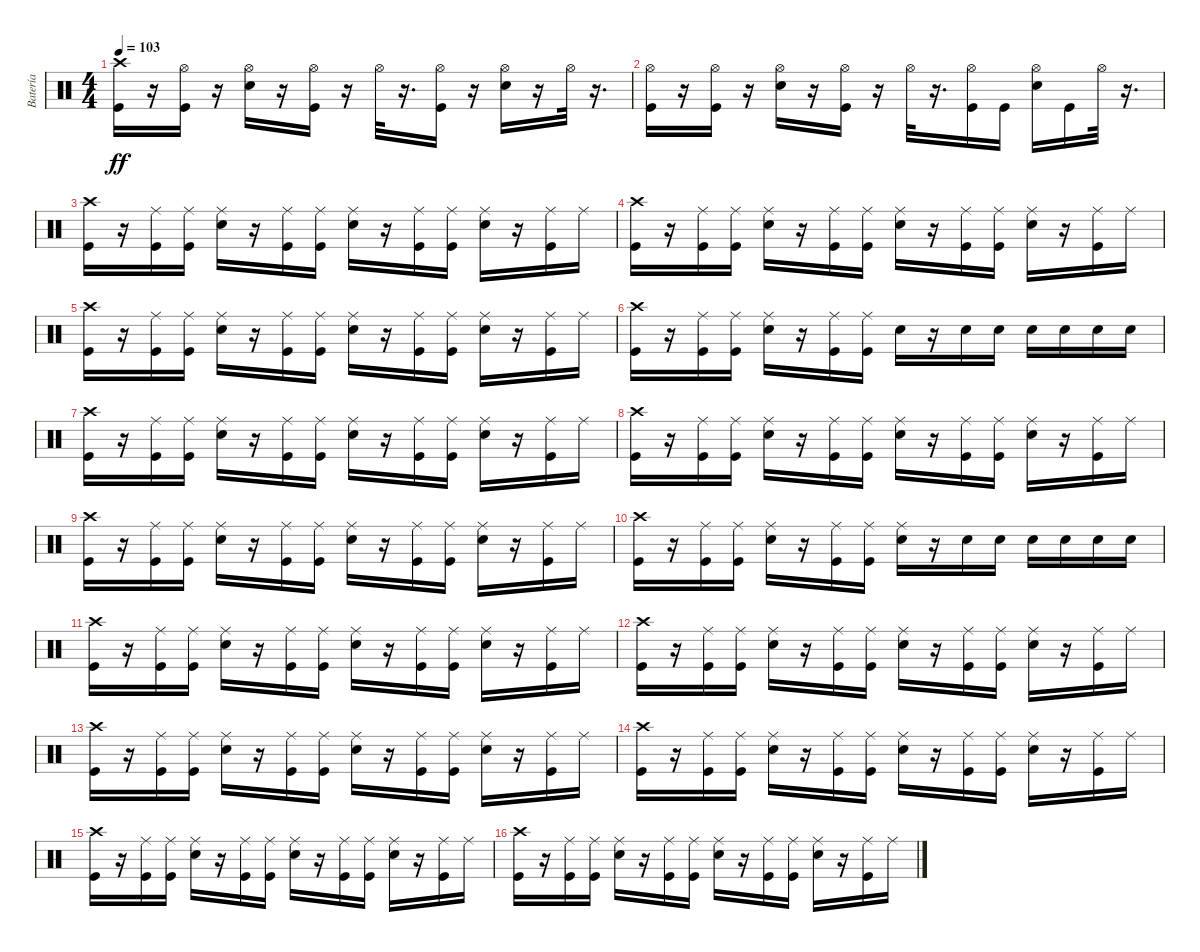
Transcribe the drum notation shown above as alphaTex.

\track ("Batería" "Batería") {instrument percussion}
\staff {score}
\articulation defaults
\ts (4 4)
\tempo 103
\clef neutral
\ks c
("Kick (hit)" "Crash high (hit)").16{dy ff} r.16 ("Kick (hit)" "Hi-Hat (open)").16 r.16 ("Snare (hit) 2" "Hi-Hat (open)").16 r.16 ("Kick (hit)" "Hi-Hat (open)").16 r.16 "Hi-Hat (open)".32 r.16{d} ("Kick (hit)" "Hi-Hat (open)").16 r.16 ("Snare (hit) 2" "Hi-Hat (open)").16 r.16 "Hi-Hat (open)".32 r.16{d} |
("Kick (hit)" "Hi-Hat (open)").16 r.16 ("Kick (hit)" "Hi-Hat (open)").16 r.16 ("Snare (hit) 2" "Hi-Hat (open)").16 r.16 ("Kick (hit)" "Hi-Hat (open)").16 r.16 "Hi-Hat (open)".32 r.16{d} ("Kick (hit)" "Hi-Hat (open)").16 "Kick (hit)".16 ("Snare (hit) 2" "Hi-Hat (open)").16 "Kick (hit)".16 "Hi-Hat (open)".32 r.16{d} |
("Kick (hit)" "Crash high (hit)").16 r.16 ("Kick (hit)" "Ride (middle)").16 ("Kick (hit)" "Ride (middle)").16 ("Ride (middle)" "Snare (hit) 2").16 r.16 ("Kick (hit)" "Ride (middle)").16 ("Kick (hit)" "Ride (middle)").16 ("Ride (middle)" "Snare (hit) 2").16 r.16 ("Kick (hit)" "Ride (middle)").16 ("Kick (hit)" "Ride (middle)").16 ("Ride (middle)" "Snare (hit) 2").16 r.16 ("Kick (hit)" "Ride (middle)").16 "Ride (middle)".16 |
("Crash high (hit)" "Kick (hit)").16 r.16 ("Kick (hit)" "Ride (middle)").16 ("Kick (hit)" "Ride (middle)").16 ("Ride (middle)" "Snare (hit) 2").16 r.16 ("Kick (hit)" "Ride (middle)").16 ("Kick (hit)" "Ride (middle)").16 ("Ride (middle)" "Snare (hit) 2").16 r.16 ("Kick (hit)" "Ride (middle)").16 ("Kick (hit)" "Ride (middle)").16 ("Ride (middle)" "Snare (hit) 2").16 r.16 ("Kick (hit)" "Ride (middle)").16 "Ride (middle)".16 |
("Crash high (hit)" "Kick (hit)").16 r.16 ("Kick (hit)" "Ride (middle)").16 ("Kick (hit)" "Ride (middle)").16 ("Ride (middle)" "Snare (hit) 2").16 r.16 ("Kick (hit)" "Ride (middle)").16 ("Kick (hit)" "Ride (middle)").16 ("Ride (middle)" "Snare (hit) 2").16 r.16 ("Kick (hit)" "Ride (middle)").16 ("Kick (hit)" "Ride (middle)").16 ("Ride (middle)" "Snare (hit) 2").16 r.16 ("Kick (hit)" "Ride (middle)").16 "Ride (middle)".16 |
("Crash high (hit)" "Kick (hit)").16 r.16 ("Kick (hit)" "Ride (middle)").16 ("Kick (hit)" "Ride (middle)").16 ("Ride (middle)" "Snare (hit) 2").16 r.16 ("Kick (hit)" "Ride (middle)").16 ("Kick (hit)" "Ride (middle)").16 "Snare (hit) 2".16 r.16 "Snare (hit) 2".16 "Snare (hit) 2".16 "Snare (hit) 2".16 "Snare (hit) 2".16 "Snare (hit) 2".16 "Snare (hit) 2".16 |
("Kick (hit)" "Crash high (hit)").16 r.16 ("Kick (hit)" "Ride (middle)").16 ("Kick (hit)" "Ride (middle)").16 ("Ride (middle)" "Snare (hit) 2").16 r.16 ("Kick (hit)" "Ride (middle)").16 ("Kick (hit)" "Ride (middle)").16 ("Ride (middle)" "Snare (hit) 2").16 r.16 ("Kick (hit)" "Ride (middle)").16 ("Kick (hit)" "Ride (middle)").16 ("Ride (middle)" "Snare (hit) 2").16 r.16 ("Kick (hit)" "Ride (middle)").16 "Ride (middle)".16 |
("Kick (hit)" "Crash high (hit)").16 r.16 ("Kick (hit)" "Ride (middle)").16 ("Kick (hit)" "Ride (middle)").16 ("Ride (middle)" "Snare (hit) 2").16 r.16 ("Kick (hit)" "Ride (middle)").16 ("Kick (hit)" "Ride (middle)").16 ("Ride (middle)" "Snare (hit) 2").16 r.16 ("Kick (hit)" "Ride (middle)").16 ("Kick (hit)" "Ride (middle)").16 ("Ride (middle)" "Snare (hit) 2").16 r.16 ("Kick (hit)" "Ride (middle)").16 "Ride (middle)".16 |
("Crash high (hit)" "Kick (hit)").16 r.16 ("Kick (hit)" "Ride (middle)").16 ("Kick (hit)" "Ride (middle)").16 ("Ride (middle)" "Snare (hit) 2").16 r.16 ("Kick (hit)" "Ride (middle)").16 ("Kick (hit)" "Ride (middle)").16 ("Ride (middle)" "Snare (hit) 2").16 r.16 ("Kick (hit)" "Ride (middle)").16 ("Kick (hit)" "Ride (middle)").16 ("Ride (middle)" "Snare (hit) 2").16 r.16 ("Kick (hit)" "Ride (middle)").16 "Ride (middle)".16 |
("Kick (hit)" "Crash high (hit)").16 r.16 ("Kick (hit)" "Ride (middle)").16 ("Kick (hit)" "Ride (middle)").16 ("Ride (middle)" "Snare (hit) 2").16 r.16 ("Kick (hit)" "Ride (middle)").16 ("Kick (hit)" "Ride (middle)").16 ("Ride (middle)" "Snare (hit) 2").16 r.16 "Snare (hit) 2".16 "Snare (hit) 2".16 "Snare (hit) 2".16 "Snare (hit) 2".16 "Snare (hit) 2".16 "Snare (hit) 2".16 |
("Kick (hit)" "Crash high (hit)").16 r.16 ("Kick (hit)" "Ride (middle)").16 ("Kick (hit)" "Ride (middle)").16 ("Ride (middle)" "Snare (hit) 2").16 r.16 ("Kick (hit)" "Ride (middle)").16 ("Kick (hit)" "Ride (middle)").16 ("Ride (middle)" "Snare (hit) 2").16 r.16 ("Kick (hit)" "Ride (middle)").16 ("Kick (hit)" "Ride (middle)").16 ("Ride (middle)" "Snare (hit) 2").16 r.16 ("Kick (hit)" "Ride (middle)").16 "Ride (middle)".16 |
("Kick (hit)" "Crash high (hit)").16 r.16 ("Kick (hit)" "Ride (middle)").16 ("Kick (hit)" "Ride (middle)").16 ("Ride (middle)" "Snare (hit) 2").16 r.16 ("Kick (hit)" "Ride (middle)").16 ("Kick (hit)" "Ride (middle)").16 ("Ride (middle)" "Snare (hit) 2").16 r.16 ("Kick (hit)" "Ride (middle)").16 ("Kick (hit)" "Ride (middle)").16 ("Ride (middle)" "Snare (hit) 2").16 r.16 ("Kick (hit)" "Ride (middle)").16 "Ride (middle)".16 |
("Kick (hit)" "Crash high (hit)").16 r.16 ("Kick (hit)" "Ride (middle)").16 ("Kick (hit)" "Ride (middle)").16 ("Ride (middle)" "Snare (hit) 2").16 r.16 ("Kick (hit)" "Ride (middle)").16 ("Kick (hit)" "Ride (middle)").16 ("Ride (middle)" "Snare (hit) 2").16 r.16 ("Kick (hit)" "Ride (middle)").16 ("Kick (hit)" "Ride (middle)").16 ("Ride (middle)" "Snare (hit) 2").16 r.16 ("Kick (hit)" "Ride (middle)").16 "Ride (middle)".16 |
("Kick (hit)" "Crash high (hit)").16 r.16 ("Kick (hit)" "Ride (middle)").16 ("Kick (hit)" "Ride (middle)").16 ("Ride (middle)" "Snare (hit) 2").16 r.16 ("Kick (hit)" "Ride (middle)").16 ("Kick (hit)" "Ride (middle)").16 ("Ride (middle)" "Snare (hit) 2").16 r.16 ("Kick (hit)" "Ride (middle)").16 ("Kick (hit)" "Ride (middle)").16 ("Ride (middle)" "Snare (hit) 2").16 r.16 ("Kick (hit)" "Ride (middle)").16 "Ride (middle)".16 |
("Kick (hit)" "Crash high (hit)").16 r.16 ("Kick (hit)" "Ride (middle)").16 ("Kick (hit)" "Ride (middle)").16 ("Ride (middle)" "Snare (hit) 2").16 r.16 ("Kick (hit)" "Ride (middle)").16 ("Kick (hit)" "Ride (middle)").16 ("Ride (middle)" "Snare (hit) 2").16 r.16 ("Kick (hit)" "Ride (middle)").16 ("Kick (hit)" "Ride (middle)").16 ("Ride (middle)" "Snare (hit) 2").16 r.16 ("Kick (hit)" "Ride (middle)").16 "Ride (middle)".16 |
("Kick (hit)" "Crash high (hit)").16 r.16 ("Kick (hit)" "Ride (middle)").16 ("Kick (hit)" "Ride (middle)").16 ("Ride (middle)" "Snare (hit) 2").16 r.16 ("Kick (hit)" "Ride (middle)").16 ("Kick (hit)" "Ride (middle)").16 ("Ride (middle)" "Snare (hit) 2").16 r.16 ("Kick (hit)" "Ride (middle)").16 ("Kick (hit)" "Ride (middle)").16 ("Ride (middle)" "Snare (hit) 2").16 r.16 ("Kick (hit)" "Ride (middle)").16 "Ride (middle)".16
